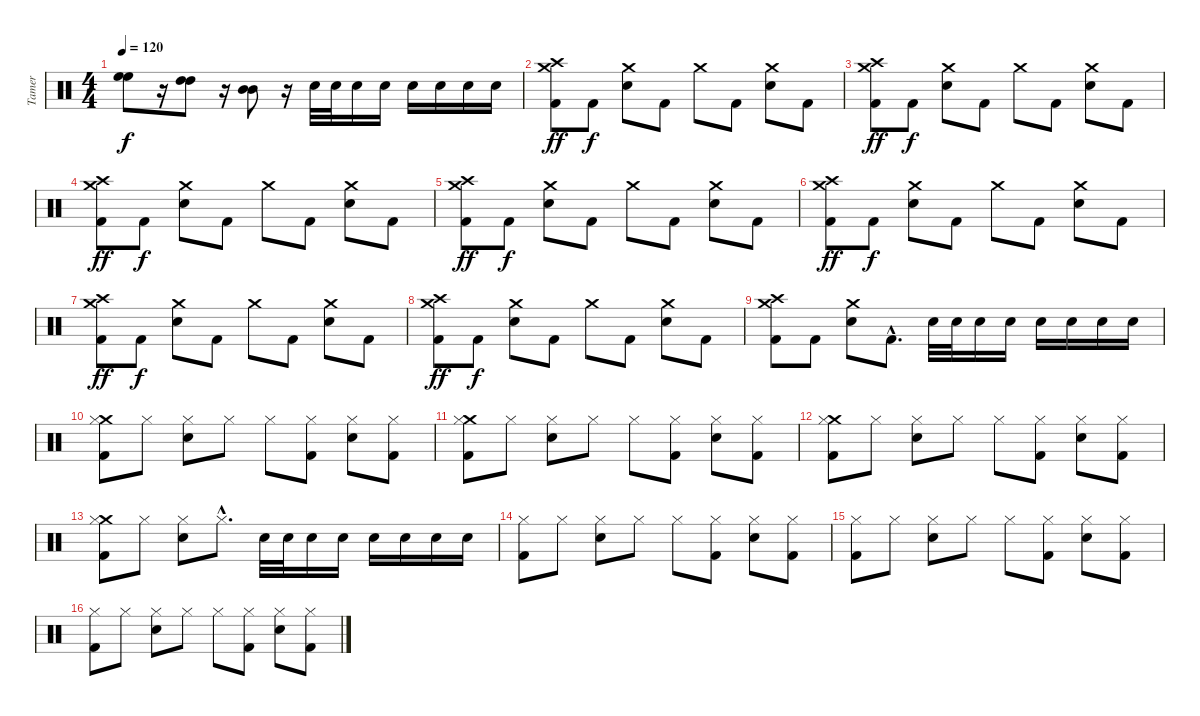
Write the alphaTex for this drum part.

\track ("Tamer" "Tamer") {instrument percussion}
\staff {score}
\articulation defaults
\ts (4 4)
\tempo 120
\clef neutral
\ks c
("High Floor Tom (hit)" "High Floor Tom (hit)").8{dy f} r.16 ("High Tom (hit)" "High Tom (hit)").8 r.16 ("Mid Tom (hit)" "Mid Tom (hit)").8 r.16 "Electric Snare (hit)".32 "Electric Snare (hit)".32 "Electric Snare (hit)".16 "Electric Snare (hit)".16 "Electric Snare (hit)".16 "Electric Snare (hit)".16 "Electric Snare (hit)".16 "Electric Snare (hit)".16 |
("Crash high (hit)" "Crash medium (hit)" "Kick (hit) 2").8{dy ff} "Kick (hit) 2".8{dy f} ("Crash medium (hit)" "Electric Snare (hit)").8 "Kick (hit) 2".8 "Crash medium (hit)".8 "Kick (hit) 2".8 ("Crash medium (hit)" "Electric Snare (hit)").8 "Kick (hit) 2".8 |
("Crash high (hit)" "Crash medium (hit)" "Kick (hit) 2").8{dy ff} "Kick (hit) 2".8{dy f} ("Crash medium (hit)" "Electric Snare (hit)").8 "Kick (hit) 2".8 "Crash medium (hit)".8 "Kick (hit) 2".8 ("Crash medium (hit)" "Electric Snare (hit)").8 "Kick (hit) 2".8 |
("Crash high (hit)" "Crash medium (hit)" "Kick (hit) 2").8{dy ff} "Kick (hit) 2".8{dy f} ("Crash medium (hit)" "Electric Snare (hit)").8 "Kick (hit) 2".8 "Crash medium (hit)".8 "Kick (hit) 2".8 ("Crash medium (hit)" "Electric Snare (hit)").8 "Kick (hit) 2".8 |
("Crash high (hit)" "Crash medium (hit)" "Kick (hit) 2").8{dy ff} "Kick (hit) 2".8{dy f} ("Crash medium (hit)" "Electric Snare (hit)").8 "Kick (hit) 2".8 "Crash medium (hit)".8 "Kick (hit) 2".8 ("Crash medium (hit)" "Electric Snare (hit)").8 "Kick (hit) 2".8 |
("Crash high (hit)" "Crash medium (hit)" "Kick (hit) 2").8{dy ff} "Kick (hit) 2".8{dy f} ("Crash medium (hit)" "Electric Snare (hit)").8 "Kick (hit) 2".8 "Crash medium (hit)".8 "Kick (hit) 2".8 ("Crash medium (hit)" "Electric Snare (hit)").8 "Kick (hit) 2".8 |
("Crash high (hit)" "Crash medium (hit)" "Kick (hit) 2").8{dy ff} "Kick (hit) 2".8{dy f} ("Crash medium (hit)" "Electric Snare (hit)").8 "Kick (hit) 2".8 "Crash medium (hit)".8 "Kick (hit) 2".8 ("Crash medium (hit)" "Electric Snare (hit)").8 "Kick (hit) 2".8 |
("Crash high (hit)" "Crash medium (hit)" "Kick (hit) 2").8{dy ff} "Kick (hit) 2".8{dy f} ("Crash medium (hit)" "Electric Snare (hit)").8 "Kick (hit) 2".8 "Crash medium (hit)".8 "Kick (hit) 2".8 ("Crash medium (hit)" "Electric Snare (hit)").8 "Kick (hit) 2".8 |
("Crash high (hit)" "Crash medium (hit)" "Kick (hit) 2").8 "Kick (hit) 2".8 ("Crash medium (hit)" "Electric Snare (hit)").8 "Kick (hit) 2"{hac}.8{d} "Electric Snare (hit)".32 "Electric Snare (hit)".32 "Electric Snare (hit)".16 "Electric Snare (hit)".16 "Electric Snare (hit)".16 "Electric Snare (hit)".16 "Electric Snare (hit)".16 "Electric Snare (hit)".16 |
("Crash medium (hit)" "Hi-Hat (closed)" "Kick (hit) 2").8 "Hi-Hat (closed)".8 ("Electric Snare (hit)" "Hi-Hat (closed)").8 "Hi-Hat (closed)".8 "Hi-Hat (closed)".8 ("Hi-Hat (closed)" "Kick (hit) 2").8 ("Electric Snare (hit)" "Hi-Hat (closed)").8 ("Hi-Hat (closed)" "Kick (hit) 2").8 |
("Crash medium (hit)" "Hi-Hat (closed)" "Kick (hit) 2").8 "Hi-Hat (closed)".8 ("Electric Snare (hit)" "Hi-Hat (closed)").8 "Hi-Hat (closed)".8 "Hi-Hat (closed)".8 ("Hi-Hat (closed)" "Kick (hit) 2").8 ("Electric Snare (hit)" "Hi-Hat (closed)").8 ("Hi-Hat (closed)" "Kick (hit) 2").8 |
("Crash medium (hit)" "Hi-Hat (closed)" "Kick (hit) 2").8 "Hi-Hat (closed)".8 ("Electric Snare (hit)" "Hi-Hat (closed)").8 "Hi-Hat (closed)".8 "Hi-Hat (closed)".8 ("Hi-Hat (closed)" "Kick (hit) 2").8 ("Electric Snare (hit)" "Hi-Hat (closed)").8 ("Hi-Hat (closed)" "Kick (hit) 2").8 |
("Crash medium (hit)" "Hi-Hat (closed)" "Kick (hit) 2").8 "Hi-Hat (closed)".8 ("Electric Snare (hit)" "Hi-Hat (closed)").8 "Hi-Hat (closed)"{hac}.8{d} "Electric Snare (hit)".32 "Electric Snare (hit)".32 "Electric Snare (hit)".16 "Electric Snare (hit)".16 "Electric Snare (hit)".16 "Electric Snare (hit)".16 "Electric Snare (hit)".16 "Electric Snare (hit)".16 |
("Hi-Hat (closed)" "Kick (hit) 2").8 "Hi-Hat (closed)".8 ("Electric Snare (hit)" "Hi-Hat (closed)").8 "Hi-Hat (closed)".8 "Hi-Hat (closed)".8 ("Hi-Hat (closed)" "Kick (hit) 2").8 ("Electric Snare (hit)" "Hi-Hat (closed)").8 ("Hi-Hat (closed)" "Kick (hit) 2").8 |
("Hi-Hat (closed)" "Kick (hit) 2").8 "Hi-Hat (closed)".8 ("Electric Snare (hit)" "Hi-Hat (closed)").8 "Hi-Hat (closed)".8 "Hi-Hat (closed)".8 ("Hi-Hat (closed)" "Kick (hit) 2").8 ("Electric Snare (hit)" "Hi-Hat (closed)").8 ("Hi-Hat (closed)" "Kick (hit) 2").8 |
("Hi-Hat (closed)" "Kick (hit) 2").8 "Hi-Hat (closed)".8 ("Electric Snare (hit)" "Hi-Hat (closed)").8 "Hi-Hat (closed)".8 "Hi-Hat (closed)".8 ("Hi-Hat (closed)" "Kick (hit) 2").8 ("Electric Snare (hit)" "Hi-Hat (closed)").8 ("Hi-Hat (closed)" "Kick (hit) 2").8
